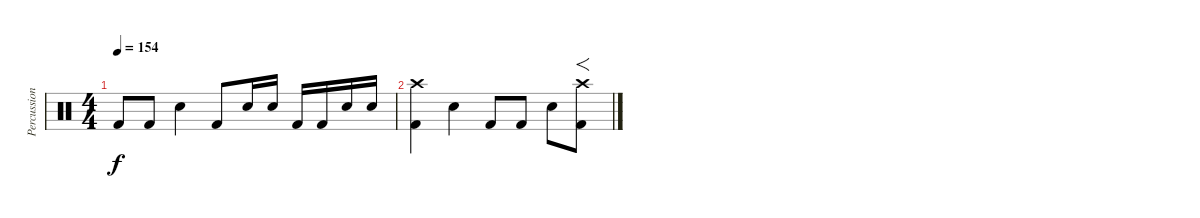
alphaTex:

\track ("Percussion" "Percussion") {instrument percussion}
\staff {score}
\articulation defaults
\ts (4 4)
\tempo 154
\clef neutral
\ks c "Kick (hit) 2"{t}.8{dy f} "Kick (hit) 2".8 "Electric Snare (hit)".4 "Kick (hit) 2".8 "Electric Snare (hit)".16 "Electric Snare (hit)".16 "Kick (hit) 2".16 "Kick (hit) 2".16 "Electric Snare (hit)".16 "Electric Snare (hit)".16
|
("Crash high (hit)" "Kick (hit) 2").4 "Electric Snare (hit)".4 "Kick (hit) 2".8 "Kick (hit) 2".8 "Electric Snare (hit)".8 ("Crash high (hit)" "Kick (hit) 2").8{f}
